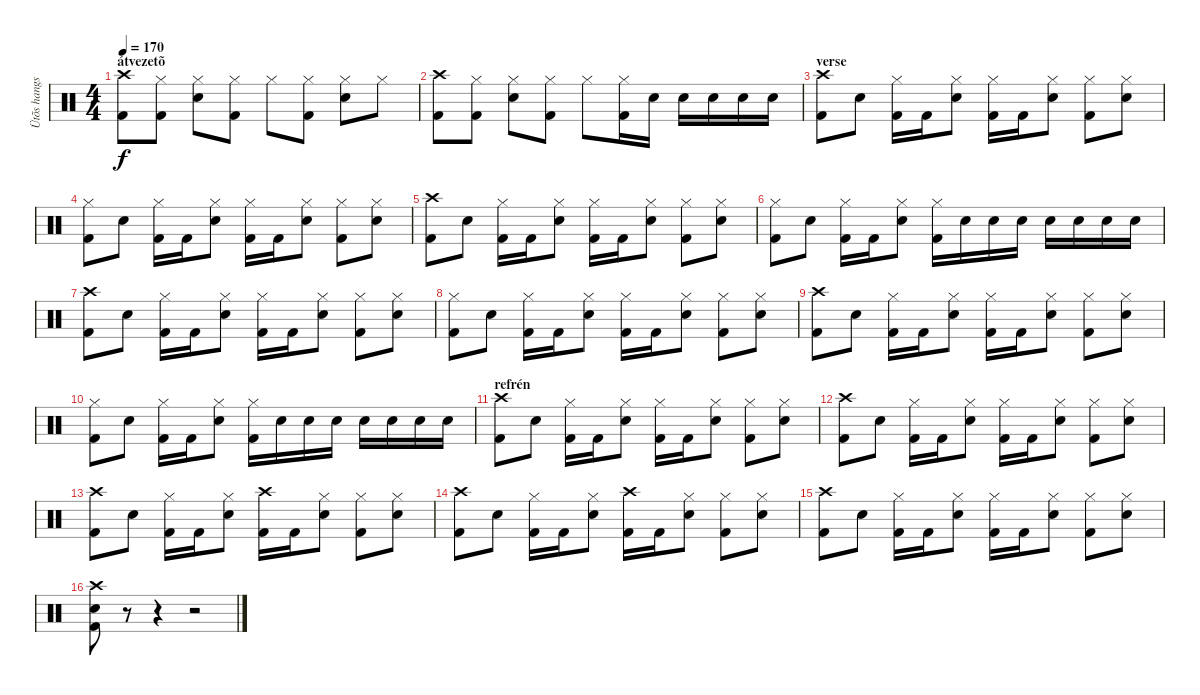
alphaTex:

\track ("Ütõs hangszer" "Ütõs hangs") {instrument percussion}
\staff {score}
\articulation defaults
\ts (4 4)
\section ("" "átvezetõ")
\tempo 170
\clef neutral
\ks c
("Crash high (hit)" "Kick (hit) 2").8{dy f} ("Hi-Hat (closed)" "Kick (hit) 2").8 ("Snare (hit) 2" "Hi-Hat (closed)").8 ("Kick (hit) 2" "Hi-Hat (closed)").8 "Hi-Hat (closed)".8 ("Kick (hit) 2" "Hi-Hat (closed)").8 ("Snare (hit) 2" "Hi-Hat (closed)").8 "Hi-Hat (closed)".8 |
("Crash high (hit)" "Kick (hit) 2").8 ("Hi-Hat (closed)" "Kick (hit) 2").8 ("Snare (hit) 2" "Hi-Hat (closed)").8 ("Kick (hit) 2" "Hi-Hat (closed)").8 "Hi-Hat (closed)".8 ("Kick (hit) 2" "Hi-Hat (closed)").16 "Snare (hit) 2".16 "Snare (hit) 2".16 "Snare (hit) 2".16 "Snare (hit) 2".16 "Snare (hit) 2".16 |
\section ("" "verse")
("Crash high (hit)" "Kick (hit) 2").8 "Snare (hit) 2".8 ("Hi-Hat (closed)" "Kick (hit) 2").16 "Kick (hit) 2".16 ("Hi-Hat (closed)" "Snare (hit) 2").8 ("Hi-Hat (closed)" "Kick (hit) 2").16 "Kick (hit) 2".16 ("Hi-Hat (closed)" "Snare (hit) 2").8 ("Hi-Hat (closed)" "Kick (hit) 2").8 ("Hi-Hat (closed)" "Snare (hit) 2").8 |
("Hi-Hat (closed)" "Kick (hit) 2").8 "Snare (hit) 2".8 ("Hi-Hat (closed)" "Kick (hit) 2").16 "Kick (hit) 2".16 ("Hi-Hat (closed)" "Snare (hit) 2").8 ("Hi-Hat (closed)" "Kick (hit) 2").16 "Kick (hit) 2".16 ("Hi-Hat (closed)" "Snare (hit) 2").8 ("Hi-Hat (closed)" "Kick (hit) 2").8 ("Hi-Hat (closed)" "Snare (hit) 2").8 |
("Crash high (hit)" "Kick (hit) 2").8 "Snare (hit) 2".8 ("Hi-Hat (closed)" "Kick (hit) 2").16 "Kick (hit) 2".16 ("Hi-Hat (closed)" "Snare (hit) 2").8 ("Hi-Hat (closed)" "Kick (hit) 2").16 "Kick (hit) 2".16 ("Hi-Hat (closed)" "Snare (hit) 2").8 ("Hi-Hat (closed)" "Kick (hit) 2").8 ("Hi-Hat (closed)" "Snare (hit) 2").8 |
("Hi-Hat (closed)" "Kick (hit) 2").8 "Snare (hit) 2".8 ("Hi-Hat (closed)" "Kick (hit) 2").16 "Kick (hit) 2".16 ("Hi-Hat (closed)" "Snare (hit) 2").8 ("Hi-Hat (closed)" "Kick (hit) 2").16 "Snare (hit) 2".16 "Snare (hit) 2".16 "Snare (hit) 2".16 "Snare (hit) 2".16 "Snare (hit) 2".16 "Snare (hit) 2".16 "Snare (hit) 2".16 |
("Crash high (hit)" "Kick (hit) 2").8 "Snare (hit) 2".8 ("Hi-Hat (closed)" "Kick (hit) 2").16 "Kick (hit) 2".16 ("Hi-Hat (closed)" "Snare (hit) 2").8 ("Hi-Hat (closed)" "Kick (hit) 2").16 "Kick (hit) 2".16 ("Hi-Hat (closed)" "Snare (hit) 2").8 ("Hi-Hat (closed)" "Kick (hit) 2").8 ("Hi-Hat (closed)" "Snare (hit) 2").8 |
("Hi-Hat (closed)" "Kick (hit) 2").8 "Snare (hit) 2".8 ("Hi-Hat (closed)" "Kick (hit) 2").16 "Kick (hit) 2".16 ("Hi-Hat (closed)" "Snare (hit) 2").8 ("Hi-Hat (closed)" "Kick (hit) 2").16 "Kick (hit) 2".16 ("Hi-Hat (closed)" "Snare (hit) 2").8 ("Hi-Hat (closed)" "Kick (hit) 2").8 ("Hi-Hat (closed)" "Snare (hit) 2").8 |
("Crash high (hit)" "Kick (hit) 2").8 "Snare (hit) 2".8 ("Hi-Hat (closed)" "Kick (hit) 2").16 "Kick (hit) 2".16 ("Hi-Hat (closed)" "Snare (hit) 2").8 ("Hi-Hat (closed)" "Kick (hit) 2").16 "Kick (hit) 2".16 ("Hi-Hat (closed)" "Snare (hit) 2").8 ("Hi-Hat (closed)" "Kick (hit) 2").8 ("Hi-Hat (closed)" "Snare (hit) 2").8 |
("Hi-Hat (closed)" "Kick (hit) 2").8 "Snare (hit) 2".8 ("Hi-Hat (closed)" "Kick (hit) 2").16 "Kick (hit) 2".16 ("Hi-Hat (closed)" "Snare (hit) 2").8 ("Hi-Hat (closed)" "Kick (hit) 2").16 "Snare (hit) 2".16 "Snare (hit) 2".16 "Snare (hit) 2".16 "Snare (hit) 2".16 "Snare (hit) 2".16 "Snare (hit) 2".16 "Snare (hit) 2".16 |
\section ("" "refrén")
("Crash high (hit)" "Kick (hit) 2").8 "Snare (hit) 2".8 ("Hi-Hat (closed)" "Kick (hit) 2").16 "Kick (hit) 2".16 ("Hi-Hat (closed)" "Snare (hit) 2").8 ("Hi-Hat (closed)" "Kick (hit) 2").16 "Kick (hit) 2".16 ("Hi-Hat (closed)" "Snare (hit) 2").8 ("Hi-Hat (closed)" "Kick (hit) 2").8 ("Hi-Hat (closed)" "Snare (hit) 2").8 |
("Crash high (hit)" "Kick (hit) 2").8 "Snare (hit) 2".8 ("Hi-Hat (closed)" "Kick (hit) 2").16 "Kick (hit) 2".16 ("Hi-Hat (closed)" "Snare (hit) 2").8 ("Hi-Hat (closed)" "Kick (hit) 2").16 "Kick (hit) 2".16 ("Hi-Hat (closed)" "Snare (hit) 2").8 ("Hi-Hat (closed)" "Kick (hit) 2").8 ("Hi-Hat (closed)" "Snare (hit) 2").8 |
("Crash high (hit)" "Kick (hit) 2").8 "Snare (hit) 2".8 ("Hi-Hat (closed)" "Kick (hit) 2").16 "Kick (hit) 2".16 ("Hi-Hat (closed)" "Snare (hit) 2").8 ("Crash high (hit)" "Kick (hit) 2").16 "Kick (hit) 2".16 ("Hi-Hat (closed)" "Snare (hit) 2").8 ("Hi-Hat (closed)" "Kick (hit) 2").8 ("Hi-Hat (closed)" "Snare (hit) 2").8 |
("Crash high (hit)" "Kick (hit) 2").8 "Snare (hit) 2".8 ("Hi-Hat (closed)" "Kick (hit) 2").16 "Kick (hit) 2".16 ("Hi-Hat (closed)" "Snare (hit) 2").8 ("Crash high (hit)" "Kick (hit) 2").16 "Kick (hit) 2".16 ("Hi-Hat (closed)" "Snare (hit) 2").8 ("Hi-Hat (closed)" "Kick (hit) 2").8 ("Hi-Hat (closed)" "Snare (hit) 2").8 |
("Crash high (hit)" "Kick (hit) 2").8 "Snare (hit) 2".8 ("Hi-Hat (closed)" "Kick (hit) 2").16 "Kick (hit) 2".16 ("Hi-Hat (closed)" "Snare (hit) 2").8 ("Hi-Hat (closed)" "Kick (hit) 2").16 "Kick (hit) 2".16 ("Hi-Hat (closed)" "Snare (hit) 2").8 ("Hi-Hat (closed)" "Kick (hit) 2").8 ("Hi-Hat (closed)" "Snare (hit) 2").8 |
("Snare (hit) 2" "Crash high (hit)" "Kick (hit) 2").8 r.8 r.4 r.2
